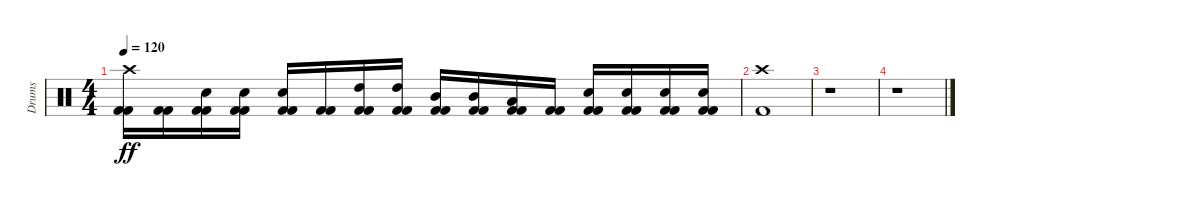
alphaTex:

\track ("Drums" "Drums") {instrument percussion}
\staff {score}
\articulation defaults
\ts (4 4)
\tempo 120
\clef neutral
\ks c
("Crash high (hit)" "Kick (hit) 2" "Kick (hit) 2").16{dy ff} ("Kick (hit) 2" "Kick (hit) 2").16 ("Electric Snare (hit)" "Kick (hit) 2" "Kick (hit) 2").16 ("Electric Snare (hit)" "Kick (hit) 2" "Kick (hit) 2").16 ("Electric Snare (hit)" "Kick (hit) 2" "Kick (hit) 2").16 ("Kick (hit) 2" "Kick (hit) 2").16 ("High Tom (hit)" "Kick (hit) 2" "Kick (hit) 2").16 ("High Tom (hit)" "Kick (hit) 2" "Kick (hit) 2").16 ("Mid Tom (hit)" "Kick (hit) 2" "Kick (hit) 2").16 ("Mid Tom (hit)" "Kick (hit) 2" "Kick (hit) 2").16 ("Low Tom (hit)" "Kick (hit) 2" "Kick (hit) 2").16 ("Kick (hit) 2" "Kick (hit) 2").16 ("Electric Snare (hit)" "Kick (hit) 2" "Kick (hit) 2").16 ("Electric Snare (hit)" "Kick (hit) 2" "Kick (hit) 2").16 ("Electric Snare (hit)" "Kick (hit) 2" "Kick (hit) 2").16 ("Electric Snare (hit)" "Kick (hit) 2" "Kick (hit) 2").16 |
("Crash high (hit)" "Kick (hit) 2").1 |
r.1 |
r.1
